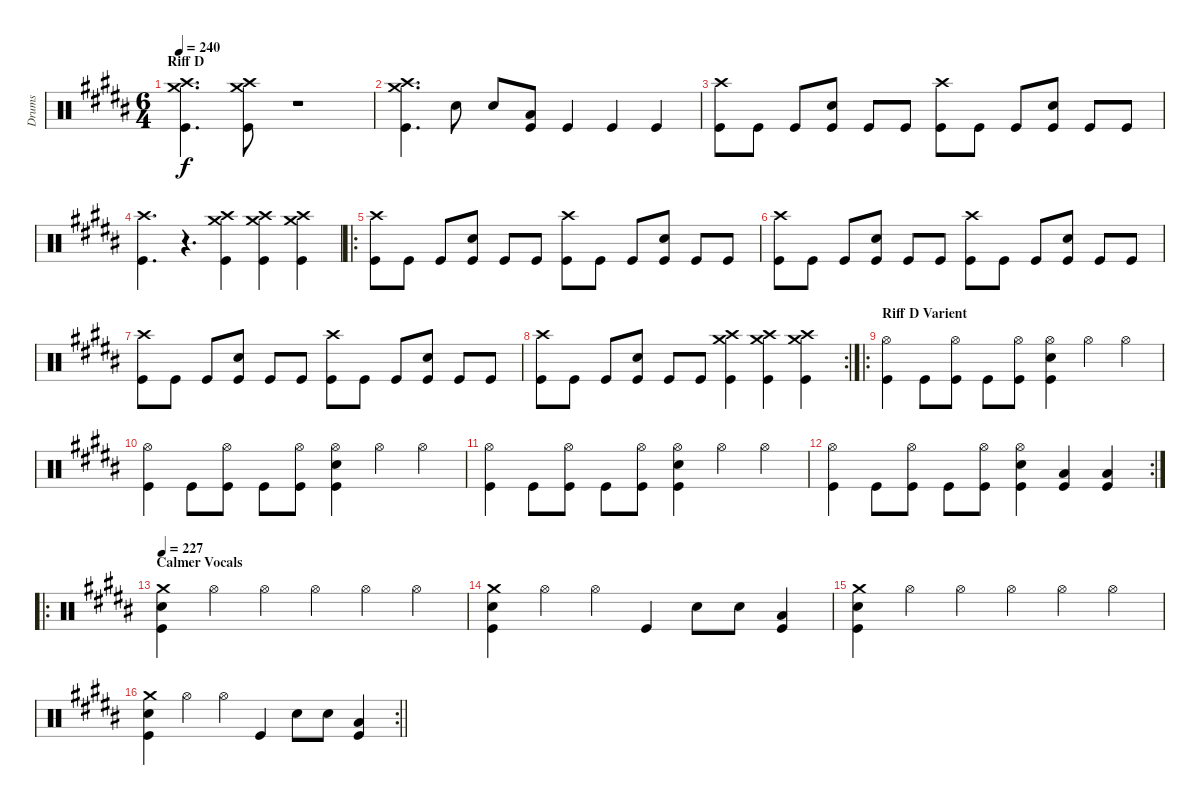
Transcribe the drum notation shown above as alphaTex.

\track ("Drums" "Drums") {instrument percussion}
\staff {score}
\articulation defaults
\ts (6 4)
\section ("" "Riff D")
\tempo 240
\clef neutral
\ks b
("Crash high (hit)" "Crash medium (hit)" "Kick (hit)").4{d dy f} ("Crash high (hit)" "Crash medium (hit)" "Kick (hit)").8 r.1 |
("Crash high (hit)" "Crash medium (hit)" "Kick (hit)").4{d} "Snare (hit) 2".8 "Snare (hit) 2".8 ("Low Floor Tom (hit)" "Kick (hit)").8 "Kick (hit)".4 "Kick (hit)".4 "Kick (hit)".4 |
("Crash high (hit)" "Kick (hit)").8 "Kick (hit)".8 "Kick (hit)".8 ("Snare (hit) 2" "Kick (hit)").8 "Kick (hit)".8 "Kick (hit)".8 ("Crash high (hit)" "Kick (hit)").8 "Kick (hit)".8 "Kick (hit)".8 ("Snare (hit) 2" "Kick (hit)").8 "Kick (hit)".8 "Kick (hit)".8 |
("Crash high (hit)" "Kick (hit)").4{d} r.4{d} ("Crash high (hit)" "Crash medium (hit)" "Kick (hit)").4 ("Crash high (hit)" "Crash medium (hit)" "Kick (hit)").4 ("Crash high (hit)" "Crash medium (hit)" "Kick (hit)").4 |
\ro
\section ("" "")
("Crash high (hit)" "Kick (hit)").8 "Kick (hit)".8 "Kick (hit)".8 ("Snare (hit) 2" "Kick (hit)").8 "Kick (hit)".8 "Kick (hit)".8 ("Crash high (hit)" "Kick (hit)").8 "Kick (hit)".8 "Kick (hit)".8 ("Snare (hit) 2" "Kick (hit)").8 "Kick (hit)".8 "Kick (hit)".8 |
("Crash high (hit)" "Kick (hit)").8 "Kick (hit)".8 "Kick (hit)".8 ("Snare (hit) 2" "Kick (hit)").8 "Kick (hit)".8 "Kick (hit)".8 ("Crash high (hit)" "Kick (hit)").8 "Kick (hit)".8 "Kick (hit)".8 ("Snare (hit) 2" "Kick (hit)").8 "Kick (hit)".8 "Kick (hit)".8 |
("Crash high (hit)" "Kick (hit)").8 "Kick (hit)".8 "Kick (hit)".8 ("Snare (hit) 2" "Kick (hit)").8 "Kick (hit)".8 "Kick (hit)".8 ("Crash high (hit)" "Kick (hit)").8 "Kick (hit)".8 "Kick (hit)".8 ("Snare (hit) 2" "Kick (hit)").8 "Kick (hit)".8 "Kick (hit)".8 |
\rc 2
("Crash high (hit)" "Kick (hit)").8 "Kick (hit)".8 "Kick (hit)".8 ("Snare (hit) 2" "Kick (hit)").8 "Kick (hit)".8 "Kick (hit)".8 ("Crash high (hit)" "Crash medium (hit)" "Kick (hit)").4 ("Crash high (hit)" "Crash medium (hit)" "Kick (hit)").4 ("Crash high (hit)" "Crash medium (hit)" "Kick (hit)").4 |
\ro
\section ("" "Riff D Varient")
("Hi-Hat (open)" "Kick (hit)").4 "Kick (hit)".8 ("Hi-Hat (open)" "Kick (hit)").8 "Kick (hit)".8 ("Hi-Hat (open)" "Kick (hit)").8 ("Hi-Hat (open)" "Snare (hit) 2" "Kick (hit)").4 "Hi-Hat (open)".4 "Hi-Hat (open)".4 |
("Hi-Hat (open)" "Kick (hit)").4 "Kick (hit)".8 ("Hi-Hat (open)" "Kick (hit)").8 "Kick (hit)".8 ("Hi-Hat (open)" "Kick (hit)").8 ("Hi-Hat (open)" "Snare (hit) 2" "Kick (hit)").4 "Hi-Hat (open)".4 "Hi-Hat (open)".4 |
("Hi-Hat (open)" "Kick (hit)").4 "Kick (hit)".8 ("Hi-Hat (open)" "Kick (hit)").8 "Kick (hit)".8 ("Hi-Hat (open)" "Kick (hit)").8 ("Hi-Hat (open)" "Snare (hit) 2" "Kick (hit)").4 "Hi-Hat (open)".4 "Hi-Hat (open)".4 |
\rc 2
("Hi-Hat (open)" "Kick (hit)").4 "Kick (hit)".8 ("Hi-Hat (open)" "Kick (hit)").8 "Kick (hit)".8 ("Hi-Hat (open)" "Kick (hit)").8 ("Hi-Hat (open)" "Snare (hit) 2" "Kick (hit)").4 ("Low Floor Tom (hit)" "Kick (hit)").4 ("Low Floor Tom (hit)" "Kick (hit)").4 |
\ro
\section ("" "Calmer Vocals")
\tempo 227
("Crash medium (hit)" "Snare (hit) 2" "Kick (hit)").4 "Hi-Hat (open)".4 "Hi-Hat (open)".4 "Hi-Hat (open)".4 "Hi-Hat (open)".4 "Hi-Hat (open)".4 |
("Crash medium (hit)" "Snare (hit) 2" "Kick (hit)").4 "Hi-Hat (open)".4 "Hi-Hat (open)".4 "Kick (hit)".4 "Snare (hit) 2".8 "Snare (hit) 2".8 ("Low Floor Tom (hit)" "Kick (hit)").4 |
("Crash medium (hit)" "Snare (hit) 2" "Kick (hit)").4 "Hi-Hat (open)".4 "Hi-Hat (open)".4 "Hi-Hat (open)".4 "Hi-Hat (open)".4 "Hi-Hat (open)".4 |
\rc 2
\barLineRight lightlight
("Crash medium (hit)" "Snare (hit) 2" "Kick (hit)").4 "Hi-Hat (open)".4 "Hi-Hat (open)".4 "Kick (hit)".4 "Snare (hit) 2".8 "Snare (hit) 2".8 ("Low Floor Tom (hit)" "Kick (hit)").4
